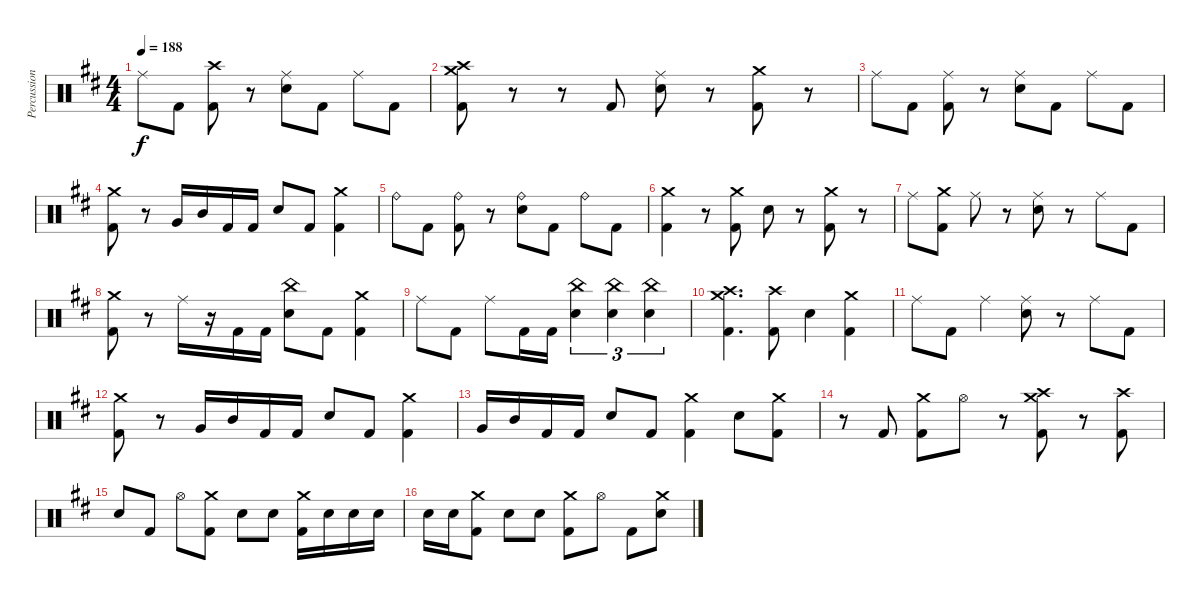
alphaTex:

\track ("Percussion" "Percussion") {instrument percussion}
\staff {score}
\articulation defaults
\ts (4 4)
\tempo 188
\clef neutral
\ks bminor "Ride (middle)".8{dy f} "Kick (hit) 2".8
("Crash high (hit)" "Kick (hit) 2").8 r.8 ("Ride (middle)" "Electric Snare (hit)").8 "Kick (hit) 2".8 "Ride (middle)".8 "Kick (hit) 2".8 |
("Crash medium (hit)" "Kick (hit) 2" "Crash high (hit)").8 r.8 r.8 "Kick (hit) 2".8 ("Ride (middle)" "Electric Snare (hit)").8 r.8 ("Crash medium (hit)" "Kick (hit) 2").8 r.8 |
"Ride (middle)".8 "Kick (hit) 2".8 ("Ride (middle)" "Kick (hit) 2").8 r.8 ("Ride (middle)" "Electric Snare (hit)").8 "Kick (hit) 2".8 "Ride (middle)".8 "Kick (hit) 2".8 |
("Crash medium (hit)" "Kick (hit) 2").8 r.8 "Very Low Tom (hit)".16 "Mid Tom (hit)".16 "Kick (hit) 2".16 "Kick (hit) 2".16 "Electric Snare (hit)".8 "Kick (hit) 2".8 ("Kick (hit) 2" "Crash medium (hit)").4 |
"Ride (bell)".8 "Kick (hit) 2".8 ("Kick (hit) 2" "Ride (bell)").8 r.8 ("Electric Snare (hit)" "Ride (bell)").8 "Kick (hit) 2".8 "Ride (bell)".8 "Kick (hit) 2".8 |
("Kick (hit) 2" "Crash medium (hit)").4 r.8 ("Crash medium (hit)" "Kick (hit) 2").8 "Electric Snare (hit)".8 r.8 ("Kick (hit) 2" "Crash medium (hit)").8 r.8 |
"Ride (middle)".8 ("Crash medium (hit)" "Kick (hit) 2").8 "Ride (middle)".8 r.8 ("Ride (middle)" "Electric Snare (hit)").8 r.8 "Ride (middle)".8 "Kick (hit) 2".8 |
("Crash medium (hit)" "Kick (hit) 2").8 r.8 "Ride (middle)".16 r.16 "Kick (hit) 2".16 "Kick (hit) 2".16 ("Electric Snare (hit)" "China (hit)").8 "Kick (hit) 2".8 ("Kick (hit) 2" "Crash medium (hit)").4 |
"Ride (middle)".8 "Kick (hit) 2".8 "Ride (middle)".8 "Kick (hit) 2".16 "Kick (hit) 2".16 ("Electric Snare (hit)" "China (hit)").4{tu (3 2)} ("Electric Snare (hit)" "China (hit)").4{tu (3 2)} ("Electric Snare (hit)" "China (hit)").4{tu (3 2)} |
("Crash medium (hit)" "Kick (hit) 2" "Crash high (hit)").4{d} ("Kick (hit) 2" "Crash high (hit)").8 "Electric Snare (hit)".4 ("Crash medium (hit)" "Kick (hit) 2").4 |
"Ride (middle)".8 "Kick (hit) 2".8 "Ride (middle)".4 ("Ride (middle)" "Electric Snare (hit)").8 r.8 "Ride (middle)".8 "Kick (hit) 2".8 |
("Crash medium (hit)" "Kick (hit) 2").8 r.8 "Very Low Tom (hit)".16 "Mid Tom (hit)".16 "Kick (hit) 2".16 "Kick (hit) 2".16 "Electric Snare (hit)".8 "Kick (hit) 2".8 ("Kick (hit) 2" "Crash medium (hit)").4 |
"Very Low Tom (hit)".16 "Mid Tom (hit)".16 "Kick (hit) 2".16 "Kick (hit) 2".16 "Electric Snare (hit)".8 "Kick (hit) 2".8 ("Kick (hit) 2" "Crash medium (hit)").4 "Electric Snare (hit)".8 ("Kick (hit) 2" "Crash medium (hit)").8 |
r.8 "Kick (hit) 2".8 ("Kick (hit) 2" "Crash medium (hit)").8 "Hi-Hat (open)".8 r.8 ("Kick (hit) 2" "Crash medium (hit)" "Crash high (hit)").8 r.8 ("Kick (hit) 2" "Crash high (hit)").8 |
"Electric Snare (hit)".8 "Kick (hit) 2".8 "Hi-Hat (open)".8 ("Crash medium (hit)" "Kick (hit) 2").8 "Electric Snare (hit)".8 "Electric Snare (hit)".8 ("Kick (hit) 2" "Crash medium (hit)").16 "Electric Snare (hit)".16 "Electric Snare (hit)".16 "Electric Snare (hit)".16 |
"Electric Snare (hit)".16 "Electric Snare (hit)".16 ("Kick (hit) 2" "Crash medium (hit)").8 "Electric Snare (hit)".8 "Electric Snare (hit)".8 ("Kick (hit) 2" "Crash medium (hit)").8 "Hi-Hat (open)".8 "Kick (hit) 2".8 ("Crash medium (hit)" "Electric Snare (hit)").8
